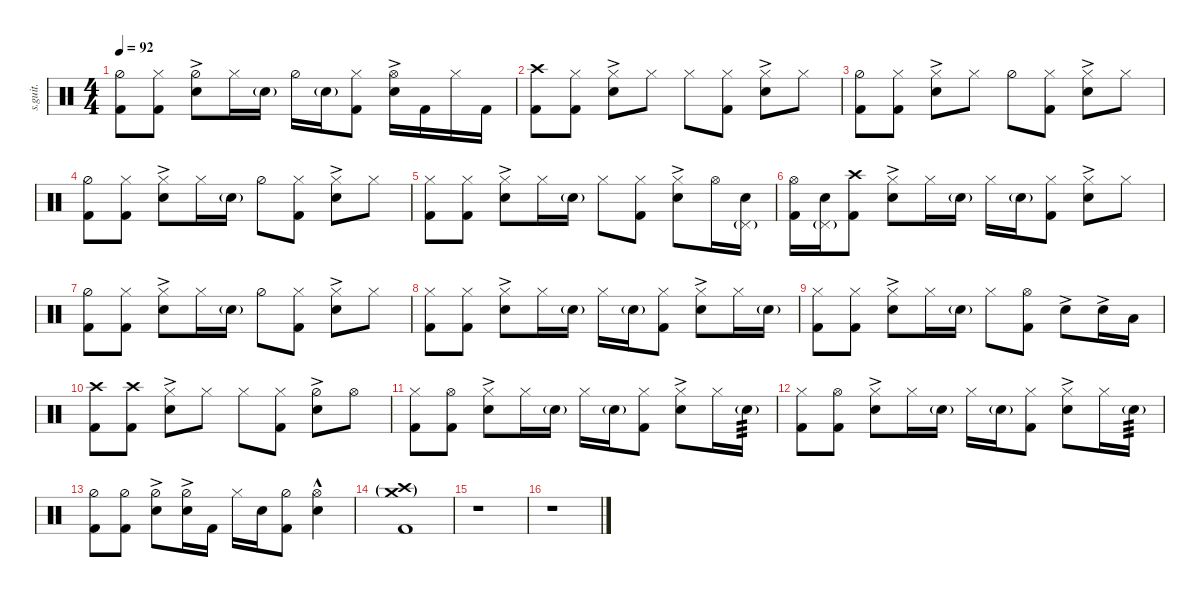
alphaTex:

\defaultSystemsLayout 4
\hideDynamics
\bracketExtendMode nobrackets
\track ("Chad Smith | Pearl Masters Series | Drums" "s.guit.") {instrument percussion}
\staff {score}
\articulation defaults
\ts (4 4)
\tempo 92
\clef neutral
\ks c
("Hi-Hat (half)" "Kick (hit) 2").8{dy f} ("Hi-Hat (closed)" "Kick (hit) 2").8 ("Hi-Hat (half)" "Snare (hit) 2"{ac}).8 "Hi-Hat (closed)".16 "Snare (hit) 2"{g}.16 "Hi-Hat (half)".16 "Snare (hit) 2"{g}.16 ("Hi-Hat (closed)" "Kick (hit) 2").8 ("Hi-Hat (open)" "Snare (hit) 2"{ac}).16 "Kick (hit) 2".16 "Hi-Hat (closed)".16 "Kick (hit) 2".16 |
("Crash high (hit)" "Kick (hit) 2").8 ("Hi-Hat (closed)" "Kick (hit) 2").8 ("Hi-Hat (closed)" "Snare (hit) 2"{ac}).8 "Hi-Hat (closed)".8 "Hi-Hat (closed)".8 ("Hi-Hat (closed)" "Kick (hit) 2").8 ("Hi-Hat (closed)" "Snare (hit) 2"{ac}).8 "Hi-Hat (closed)".8 |
("Hi-Hat (half)" "Kick (hit) 2").8 ("Hi-Hat (closed)" "Kick (hit) 2").8 ("Hi-Hat (closed)" "Snare (hit) 2"{ac}).8 "Hi-Hat (closed)".8 "Hi-Hat (half)".8 ("Hi-Hat (closed)" "Kick (hit) 2").8 ("Hi-Hat (closed)" "Snare (hit) 2"{ac}).8 "Hi-Hat (closed)".8 |
("Hi-Hat (half)" "Kick (hit) 2").8 ("Hi-Hat (closed)" "Kick (hit) 2").8 ("Hi-Hat (closed)" "Snare (hit) 2"{ac}).8 "Hi-Hat (closed)".16 "Snare (hit) 2"{g}.16 "Hi-Hat (half)".8 ("Hi-Hat (closed)" "Kick (hit) 2").8 ("Hi-Hat (closed)" "Snare (hit) 2"{ac}).8 "Hi-Hat (closed)".8 |
("Hi-Hat (closed)" "Kick (hit) 2").8 ("Hi-Hat (closed)" "Kick (hit) 2").8 ("Hi-Hat (closed)" "Snare (hit) 2"{ac}).8 "Hi-Hat (closed)".16 "Snare (hit) 2"{g}.16 "Hi-Hat (closed)".8 ("Hi-Hat (closed)" "Kick (hit) 2").8 ("Hi-Hat (closed)" "Snare (hit) 2"{ac}).8 "Hi-Hat (open)".16 ("Snare (hit) 2" "Pedal Hi-Hat (hit)"{g}).16 |
("Hi-Hat (open)" "Kick (hit) 2").16 ("Snare (hit) 2" "Pedal Hi-Hat (hit)"{g}).16 ("Crash high (hit)" "Kick (hit) 2").8 ("Hi-Hat (closed)" "Snare (hit) 2"{ac}).8 "Hi-Hat (closed)".16 "Snare (hit) 2"{g}.16 "Hi-Hat (closed)".16 "Snare (hit) 2"{g}.16 ("Hi-Hat (closed)" "Kick (hit) 2").8 ("Hi-Hat (closed)" "Snare (hit) 2"{ac}).8 "Hi-Hat (closed)".8 |
("Hi-Hat (half)" "Kick (hit) 2").8 ("Hi-Hat (closed)" "Kick (hit) 2").8 ("Hi-Hat (closed)" "Snare (hit) 2"{ac}).8 "Hi-Hat (closed)".16 "Snare (hit) 2"{g}.16 "Hi-Hat (half)".8 ("Hi-Hat (closed)" "Kick (hit) 2").8 ("Hi-Hat (closed)" "Snare (hit) 2"{ac}).8 "Hi-Hat (closed)".8 |
("Hi-Hat (closed)" "Kick (hit) 2").8 ("Hi-Hat (closed)" "Kick (hit) 2").8 ("Hi-Hat (closed)" "Snare (hit) 2"{ac}).8 "Hi-Hat (closed)".16 "Snare (hit) 2"{g}.16 "Hi-Hat (closed)".16 "Snare (hit) 2"{g}.16 ("Hi-Hat (closed)" "Kick (hit) 2").8 ("Hi-Hat (closed)" "Snare (hit) 2"{ac}).8 "Hi-Hat (closed)".16 "Snare (hit) 2"{g}.16 |
("Hi-Hat (closed)" "Kick (hit) 2").8 ("Hi-Hat (closed)" "Kick (hit) 2").8 ("Hi-Hat (closed)" "Snare (hit) 2"{ac}).8 "Hi-Hat (closed)".16 "Snare (hit) 2"{g}.16 "Hi-Hat (closed)".8 ("Hi-Hat (open)" "Kick (hit) 2").8 "Snare (hit) 2"{ac}.8 "Snare (hit) 2"{ac}.16 "Low Tom (hit)".16 |
("Crash high (hit)" "Kick (hit) 2").8 ("Crash high (hit)" "Kick (hit) 2").8 ("Hi-Hat (closed)" "Snare (hit) 2"{ac}).8 "Hi-Hat (closed)".8 "Hi-Hat (closed)".8 ("Hi-Hat (closed)" "Kick (hit) 2").8 ("Hi-Hat (half)" "Snare (hit) 2"{ac}).8 "Hi-Hat (open)".8 |
("Hi-Hat (closed)" "Kick (hit) 2").8 ("Hi-Hat (open)" "Kick (hit) 2").8 ("Hi-Hat (closed)" "Snare (hit) 2"{ac}).8 "Hi-Hat (closed)".16 "Snare (hit) 2"{g}.16 "Hi-Hat (closed)".16 "Snare (hit) 2"{g}.16 ("Hi-Hat (closed)" "Kick (hit) 2").8 ("Hi-Hat (closed)" "Snare (hit) 2"{ac}).8 "Hi-Hat (closed)".16 "Snare (hit) 2"{g}.16{tp 3} |
("Hi-Hat (closed)" "Kick (hit) 2").8 ("Hi-Hat (open)" "Kick (hit) 2").8 ("Hi-Hat (closed)" "Snare (hit) 2"{ac}).8 "Hi-Hat (closed)".16 "Snare (hit) 2"{g}.16 "Hi-Hat (closed)".16 "Snare (hit) 2"{g}.16 ("Hi-Hat (closed)" "Kick (hit) 2").8 ("Hi-Hat (closed)" "Snare (hit) 2"{ac}).8 "Hi-Hat (closed)".16 "Snare (hit) 2"{g}.16{tp 3} |
("Hi-Hat (half)" "Kick (hit) 2").8 ("Hi-Hat (half)" "Kick (hit) 2").8 ("Hi-Hat (half)" "Snare (hit) 2"{ac}).8 ("Hi-Hat (half)" "Snare (hit) 2"{ac}).16 "Kick (hit) 2".16 "Hi-Hat (closed)".16 "Snare (hit) 2".16 ("Hi-Hat (half)" "Kick (hit) 2").8 ("Hi-Hat (open)" "Snare (hit) 2"{hac}).4 |
("Crash high (hit)"{g} "Crash medium (hit)"{g} "Kick (hit) 2").1 |
r.1 |
r.1
